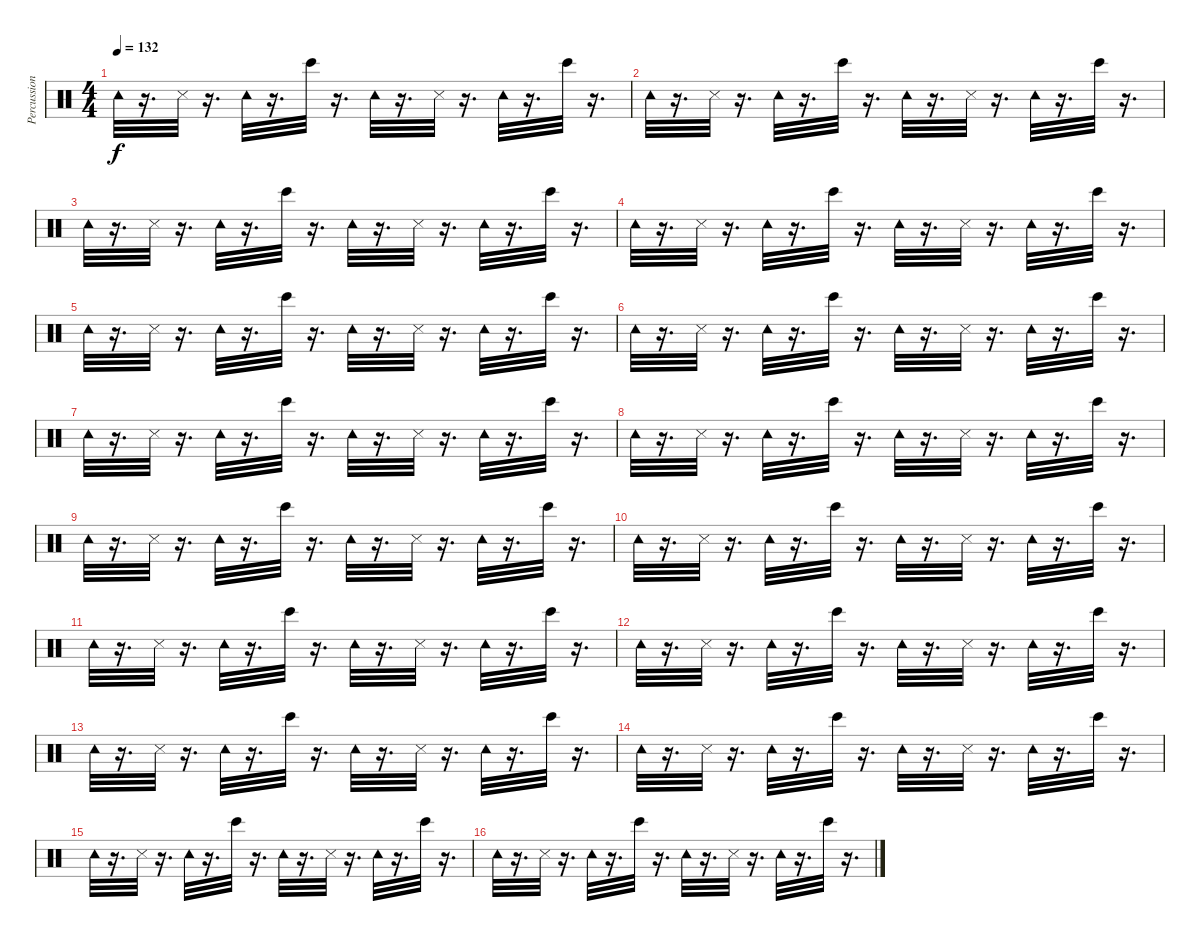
\track ("Percussion 2" "Percussion") {instrument percussion}
\staff {score}
\articulation defaults
\ts (4 4)
\tempo 132
\clef neutral
\ks c "Tambourine (hit)".32{dy f}
r.16{d} "Metronome (hit)".32 r.16{d} "Tambourine (hit)".32 r.16{d} "Bongo High (hit)".32 r.16{d} "Tambourine (hit)".32 r.16{d} "Metronome (hit)".32 r.16{d} "Tambourine (hit)".32 r.16{d} "Bongo High (hit)".32 r.16{d} |
"Tambourine (hit)".32 r.16{d} "Metronome (hit)".32 r.16{d} "Tambourine (hit)".32 r.16{d} "Bongo High (hit)".32 r.16{d} "Tambourine (hit)".32 r.16{d} "Metronome (hit)".32 r.16{d} "Tambourine (hit)".32 r.16{d} "Bongo High (hit)".32 r.16{d} |
"Tambourine (hit)".32 r.16{d} "Metronome (hit)".32 r.16{d} "Tambourine (hit)".32 r.16{d} "Bongo High (hit)".32 r.16{d} "Tambourine (hit)".32 r.16{d} "Metronome (hit)".32 r.16{d} "Tambourine (hit)".32 r.16{d} "Bongo High (hit)".32 r.16{d} |
"Tambourine (hit)".32 r.16{d} "Metronome (hit)".32 r.16{d} "Tambourine (hit)".32 r.16{d} "Bongo High (hit)".32 r.16{d} "Tambourine (hit)".32 r.16{d} "Metronome (hit)".32 r.16{d} "Tambourine (hit)".32 r.16{d} "Bongo High (hit)".32 r.16{d} |
"Tambourine (hit)".32 r.16{d} "Metronome (hit)".32 r.16{d} "Tambourine (hit)".32 r.16{d} "Bongo High (hit)".32 r.16{d} "Tambourine (hit)".32 r.16{d} "Metronome (hit)".32 r.16{d} "Tambourine (hit)".32 r.16{d} "Bongo High (hit)".32 r.16{d} |
"Tambourine (hit)".32 r.16{d} "Metronome (hit)".32 r.16{d} "Tambourine (hit)".32 r.16{d} "Bongo High (hit)".32 r.16{d} "Tambourine (hit)".32 r.16{d} "Metronome (hit)".32 r.16{d} "Tambourine (hit)".32 r.16{d} "Bongo High (hit)".32 r.16{d} |
"Tambourine (hit)".32 r.16{d} "Metronome (hit)".32 r.16{d} "Tambourine (hit)".32 r.16{d} "Bongo High (hit)".32 r.16{d} "Tambourine (hit)".32 r.16{d} "Metronome (hit)".32 r.16{d} "Tambourine (hit)".32 r.16{d} "Bongo High (hit)".32 r.16{d} |
"Tambourine (hit)".32 r.16{d} "Metronome (hit)".32 r.16{d} "Tambourine (hit)".32 r.16{d} "Bongo High (hit)".32 r.16{d} "Tambourine (hit)".32 r.16{d} "Metronome (hit)".32 r.16{d} "Tambourine (hit)".32 r.16{d} "Bongo High (hit)".32 r.16{d} |
"Tambourine (hit)".32 r.16{d} "Metronome (hit)".32 r.16{d} "Tambourine (hit)".32 r.16{d} "Bongo High (hit)".32 r.16{d} "Tambourine (hit)".32 r.16{d} "Metronome (hit)".32 r.16{d} "Tambourine (hit)".32 r.16{d} "Bongo High (hit)".32 r.16{d} |
"Tambourine (hit)".32 r.16{d} "Metronome (hit)".32 r.16{d} "Tambourine (hit)".32 r.16{d} "Bongo High (hit)".32 r.16{d} "Tambourine (hit)".32 r.16{d} "Metronome (hit)".32 r.16{d} "Tambourine (hit)".32 r.16{d} "Bongo High (hit)".32 r.16{d} |
"Tambourine (hit)".32 r.16{d} "Metronome (hit)".32 r.16{d} "Tambourine (hit)".32 r.16{d} "Bongo High (hit)".32 r.16{d} "Tambourine (hit)".32 r.16{d} "Metronome (hit)".32 r.16{d} "Tambourine (hit)".32 r.16{d} "Bongo High (hit)".32 r.16{d} |
"Tambourine (hit)".32 r.16{d} "Metronome (hit)".32 r.16{d} "Tambourine (hit)".32 r.16{d} "Bongo High (hit)".32 r.16{d} "Tambourine (hit)".32 r.16{d} "Metronome (hit)".32 r.16{d} "Tambourine (hit)".32 r.16{d} "Bongo High (hit)".32 r.16{d} |
"Tambourine (hit)".32 r.16{d} "Metronome (hit)".32 r.16{d} "Tambourine (hit)".32 r.16{d} "Bongo High (hit)".32 r.16{d} "Tambourine (hit)".32 r.16{d} "Metronome (hit)".32 r.16{d} "Tambourine (hit)".32 r.16{d} "Bongo High (hit)".32 r.16{d} |
"Tambourine (hit)".32 r.16{d} "Metronome (hit)".32 r.16{d} "Tambourine (hit)".32 r.16{d} "Bongo High (hit)".32 r.16{d} "Tambourine (hit)".32 r.16{d} "Metronome (hit)".32 r.16{d} "Tambourine (hit)".32 r.16{d} "Bongo High (hit)".32 r.16{d} |
"Tambourine (hit)".32 r.16{d} "Metronome (hit)".32 r.16{d} "Tambourine (hit)".32 r.16{d} "Bongo High (hit)".32 r.16{d} "Tambourine (hit)".32 r.16{d} "Metronome (hit)".32 r.16{d} "Tambourine (hit)".32 r.16{d} "Bongo High (hit)".32 r.16{d} |
"Tambourine (hit)".32 r.16{d} "Metronome (hit)".32 r.16{d} "Tambourine (hit)".32 r.16{d} "Bongo High (hit)".32 r.16{d} "Tambourine (hit)".32 r.16{d} "Metronome (hit)".32 r.16{d} "Tambourine (hit)".32 r.16{d} "Bongo High (hit)".32 r.16{d}
